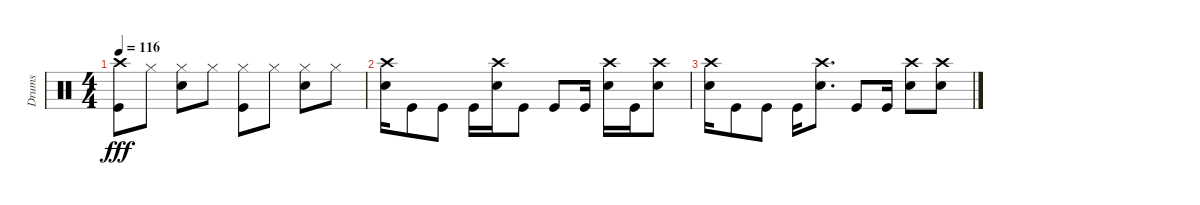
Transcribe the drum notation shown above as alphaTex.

\track ("Drums" "Drums") {instrument percussion}
\staff {score}
\articulation defaults
\ts (4 4)
\tempo 116
\clef neutral
\ks c
("Crash high (hit)" "Kick (hit)").8{dy fff} "Hi-Hat (closed)".8 ("Hi-Hat (closed)" "Electric Snare (hit)").8 "Hi-Hat (closed)".8 ("Hi-Hat (closed)" "Kick (hit)").8 "Hi-Hat (closed)".8 ("Hi-Hat (closed)" "Electric Snare (hit)").8 "Hi-Hat (closed)".8 |
("Crash high (hit)" "Electric Snare (hit)").16 "Kick (hit)".8 "Kick (hit)".8 "Kick (hit)".16 ("Electric Snare (hit)" "Crash high (hit)").16 "Kick (hit)".8 "Kick (hit)".8 "Kick (hit)".16 ("Electric Snare (hit)" "Crash high (hit)").16 "Kick (hit)".16 ("Electric Snare (hit)" "Crash high (hit)").8 |
("Crash high (hit)" "Electric Snare (hit)").16 "Kick (hit)".8 "Kick (hit)".8 "Kick (hit)".16 ("Electric Snare (hit)" "Crash high (hit)").8{d} "Kick (hit)".8 "Kick (hit)".16 ("Electric Snare (hit)" "Crash high (hit)").8 ("Electric Snare (hit)" "Crash high (hit)").8
